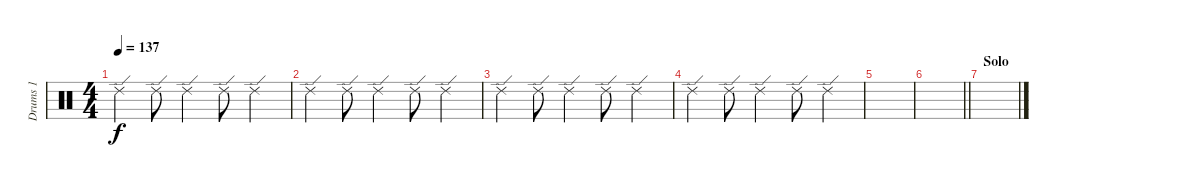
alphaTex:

\track ("Drums 1" "Drums 1") {instrument percussion}
\staff {score}
\articulation defaults
\ts (4 4)
\tempo 137
\clef neutral
\ks c "Ride (edge) 2".4{dy f} "Ride (edge) 2".8 "Ride (edge) 2".4 "Ride (edge) 2".8 "Ride (edge) 2".4
|
"Ride (edge) 2".4 "Ride (edge) 2".8 "Ride (edge) 2".4 "Ride (edge) 2".8 "Ride (edge) 2".4 |
"Ride (edge) 2".4 "Ride (edge) 2".8 "Ride (edge) 2".4 "Ride (edge) 2".8 "Ride (edge) 2".4 |
"Ride (edge) 2".4 "Ride (edge) 2".8 "Ride (edge) 2".4 "Ride (edge) 2".8 "Ride (edge) 2".4 |
|
\barLineRight lightlight
|
\section ("" "Solo")
